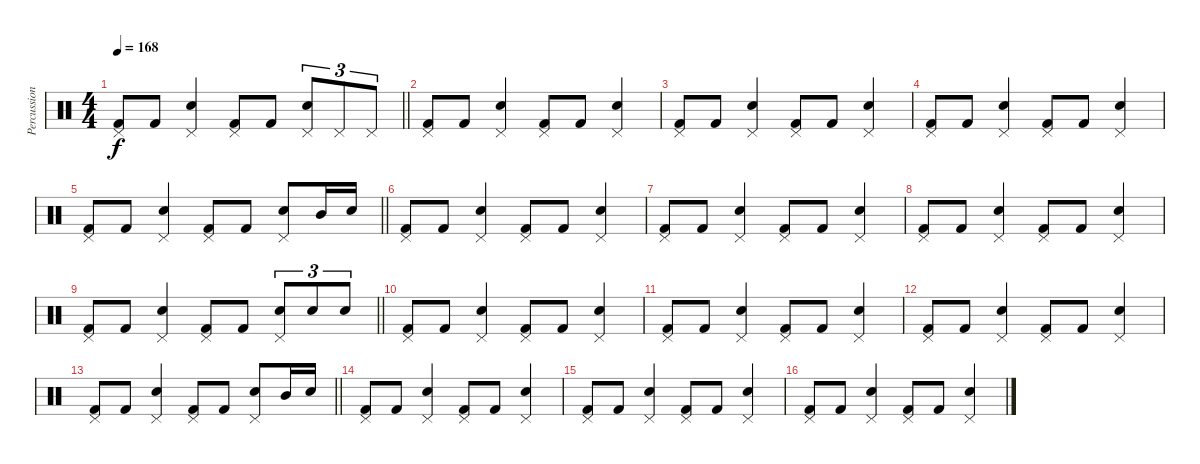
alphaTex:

\track ("Percussion" "Percussion") {instrument percussion}
\staff {score}
\articulation defaults
\ts (4 4)
\tempo 168
\clef neutral
\barLineRight lightlight
\ks c
("Pedal Hi-Hat (hit)" "Kick (hit) 2").8{dy f} "Kick (hit) 2".8 ("Pedal Hi-Hat (hit)" "Electric Snare (hit)").4 ("Pedal Hi-Hat (hit)" "Kick (hit) 2").8 "Kick (hit) 2".8 ("Pedal Hi-Hat (hit)" "Electric Snare (hit)").8{tu (3 2)} "Pedal Hi-Hat (hit)".8{tu (3 2)} "Pedal Hi-Hat (hit)".8{tu (3 2)} |
("Pedal Hi-Hat (hit)" "Kick (hit) 2").8 "Kick (hit) 2".8 ("Pedal Hi-Hat (hit)" "Electric Snare (hit)").4 ("Pedal Hi-Hat (hit)" "Kick (hit) 2").8 "Kick (hit) 2".8 ("Pedal Hi-Hat (hit)" "Electric Snare (hit)").4 |
("Pedal Hi-Hat (hit)" "Kick (hit) 2").8 "Kick (hit) 2".8 ("Pedal Hi-Hat (hit)" "Electric Snare (hit)").4 ("Pedal Hi-Hat (hit)" "Kick (hit) 2").8 "Kick (hit) 2".8 ("Pedal Hi-Hat (hit)" "Electric Snare (hit)").4 |
("Pedal Hi-Hat (hit)" "Kick (hit) 2").8 "Kick (hit) 2".8 ("Pedal Hi-Hat (hit)" "Electric Snare (hit)").4 ("Pedal Hi-Hat (hit)" "Kick (hit) 2").8 "Kick (hit) 2".8 ("Pedal Hi-Hat (hit)" "Electric Snare (hit)").4 |
\barLineRight lightlight
("Pedal Hi-Hat (hit)" "Kick (hit) 2").8 "Kick (hit) 2".8 ("Pedal Hi-Hat (hit)" "Electric Snare (hit)").4 ("Pedal Hi-Hat (hit)" "Kick (hit) 2").8 "Kick (hit) 2".8 ("Pedal Hi-Hat (hit)" "Electric Snare (hit)").8 "Mid Tom (hit)".16 "Electric Snare (hit)".16 |
("Pedal Hi-Hat (hit)" "Kick (hit) 2").8 "Kick (hit) 2".8 ("Pedal Hi-Hat (hit)" "Electric Snare (hit)").4 ("Pedal Hi-Hat (hit)" "Kick (hit) 2").8 "Kick (hit) 2".8 ("Pedal Hi-Hat (hit)" "Electric Snare (hit)").4 |
("Pedal Hi-Hat (hit)" "Kick (hit) 2").8 "Kick (hit) 2".8 ("Pedal Hi-Hat (hit)" "Electric Snare (hit)").4 ("Pedal Hi-Hat (hit)" "Kick (hit) 2").8 "Kick (hit) 2".8 ("Pedal Hi-Hat (hit)" "Electric Snare (hit)").4 |
("Pedal Hi-Hat (hit)" "Kick (hit) 2").8 "Kick (hit) 2".8 ("Pedal Hi-Hat (hit)" "Electric Snare (hit)").4 ("Pedal Hi-Hat (hit)" "Kick (hit) 2").8 "Kick (hit) 2".8 ("Pedal Hi-Hat (hit)" "Electric Snare (hit)").4 |
\barLineRight lightlight
("Pedal Hi-Hat (hit)" "Kick (hit) 2").8 "Kick (hit) 2".8 ("Pedal Hi-Hat (hit)" "Electric Snare (hit)").4 ("Pedal Hi-Hat (hit)" "Kick (hit) 2").8 "Kick (hit) 2".8 ("Pedal Hi-Hat (hit)" "Electric Snare (hit)").8{tu (3 2)} "Electric Snare (hit)".8{tu (3 2)} "Electric Snare (hit)".8{tu (3 2)} |
("Pedal Hi-Hat (hit)" "Kick (hit) 2").8 "Kick (hit) 2".8 ("Pedal Hi-Hat (hit)" "Electric Snare (hit)").4 ("Pedal Hi-Hat (hit)" "Kick (hit) 2").8 "Kick (hit) 2".8 ("Pedal Hi-Hat (hit)" "Electric Snare (hit)").4 |
("Pedal Hi-Hat (hit)" "Kick (hit) 2").8 "Kick (hit) 2".8 ("Pedal Hi-Hat (hit)" "Electric Snare (hit)").4 ("Pedal Hi-Hat (hit)" "Kick (hit) 2").8 "Kick (hit) 2".8 ("Pedal Hi-Hat (hit)" "Electric Snare (hit)").4 |
("Pedal Hi-Hat (hit)" "Kick (hit) 2").8 "Kick (hit) 2".8 ("Pedal Hi-Hat (hit)" "Electric Snare (hit)").4 ("Pedal Hi-Hat (hit)" "Kick (hit) 2").8 "Kick (hit) 2".8 ("Pedal Hi-Hat (hit)" "Electric Snare (hit)").4 |
\barLineRight lightlight
("Pedal Hi-Hat (hit)" "Kick (hit) 2").8 "Kick (hit) 2".8 ("Pedal Hi-Hat (hit)" "Electric Snare (hit)").4 ("Pedal Hi-Hat (hit)" "Kick (hit) 2").8 "Kick (hit) 2".8 ("Pedal Hi-Hat (hit)" "Electric Snare (hit)").8 "Mid Tom (hit)".16 "Electric Snare (hit)".16 |
("Pedal Hi-Hat (hit)" "Kick (hit) 2").8 "Kick (hit) 2".8 ("Pedal Hi-Hat (hit)" "Electric Snare (hit)").4 ("Pedal Hi-Hat (hit)" "Kick (hit) 2").8 "Kick (hit) 2".8 ("Pedal Hi-Hat (hit)" "Electric Snare (hit)").4 |
("Pedal Hi-Hat (hit)" "Kick (hit) 2").8 "Kick (hit) 2".8 ("Pedal Hi-Hat (hit)" "Electric Snare (hit)").4 ("Pedal Hi-Hat (hit)" "Kick (hit) 2").8 "Kick (hit) 2".8 ("Pedal Hi-Hat (hit)" "Electric Snare (hit)").4 |
("Pedal Hi-Hat (hit)" "Kick (hit) 2").8 "Kick (hit) 2".8 ("Pedal Hi-Hat (hit)" "Electric Snare (hit)").4 ("Pedal Hi-Hat (hit)" "Kick (hit) 2").8 "Kick (hit) 2".8 ("Pedal Hi-Hat (hit)" "Electric Snare (hit)").4
